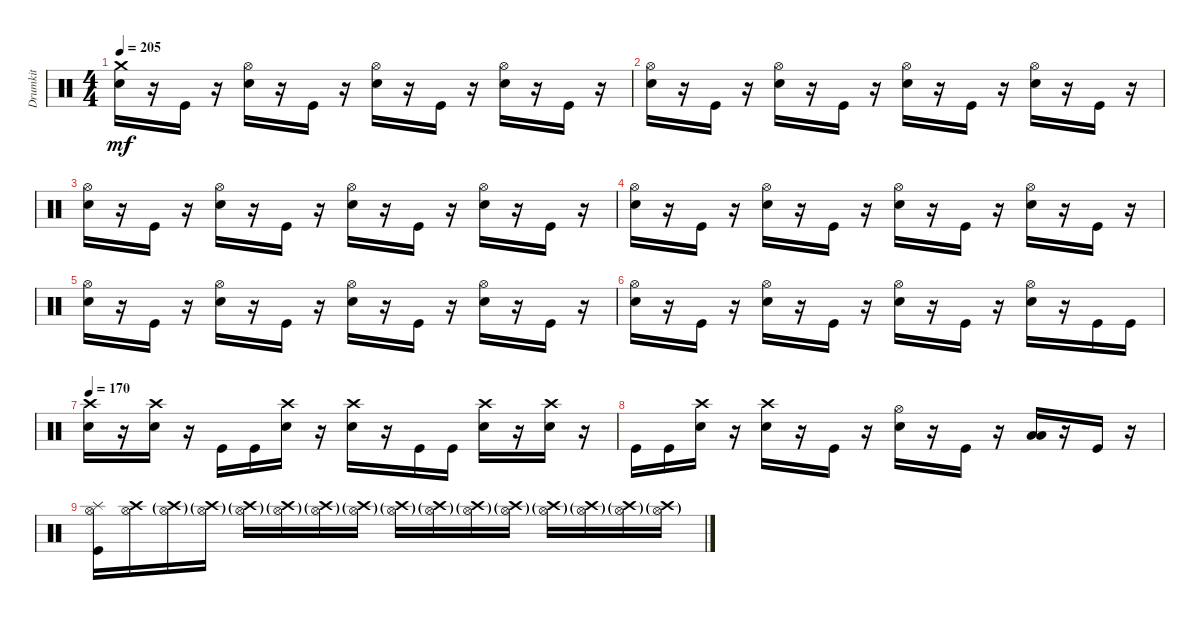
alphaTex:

\track ("Drumkit" "Drumkit") {instrument percussion}
\staff {score}
\articulation defaults
\ts (4 4)
\tempo 205
\clef neutral
\ks c
("Snare (hit) 2" "Crash medium (hit)").16{dy mf} r.16 "Kick (hit)".16 r.16 ("Snare (hit) 2" "Hi-Hat (open)").16 r.16 "Kick (hit)".16 r.16 ("Snare (hit) 2" "Hi-Hat (open)").16 r.16 "Kick (hit)".16 r.16 ("Snare (hit) 2" "Hi-Hat (open)").16 r.16 "Kick (hit)".16 r.16 |
("Snare (hit) 2" "Hi-Hat (open)").16 r.16 "Kick (hit)".16 r.16 ("Snare (hit) 2" "Hi-Hat (open)").16 r.16 "Kick (hit)".16 r.16 ("Snare (hit) 2" "Hi-Hat (open)").16 r.16 "Kick (hit)".16 r.16 ("Snare (hit) 2" "Hi-Hat (open)").16 r.16 "Kick (hit)".16 r.16 |
("Snare (hit) 2" "Hi-Hat (open)").16 r.16 "Kick (hit)".16 r.16 ("Snare (hit) 2" "Hi-Hat (open)").16 r.16 "Kick (hit)".16 r.16 ("Snare (hit) 2" "Hi-Hat (open)").16 r.16 "Kick (hit)".16 r.16 ("Snare (hit) 2" "Hi-Hat (open)").16 r.16 "Kick (hit)".16 r.16 |
("Snare (hit) 2" "Hi-Hat (open)").16 r.16 "Kick (hit)".16 r.16 ("Snare (hit) 2" "Hi-Hat (open)").16 r.16 "Kick (hit)".16 r.16 ("Snare (hit) 2" "Hi-Hat (open)").16 r.16 "Kick (hit)".16 r.16 ("Snare (hit) 2" "Hi-Hat (open)").16 r.16 "Kick (hit)".16 r.16 |
("Snare (hit) 2" "Hi-Hat (open)").16 r.16 "Kick (hit)".16 r.16 ("Snare (hit) 2" "Hi-Hat (open)").16 r.16 "Kick (hit)".16 r.16 ("Snare (hit) 2" "Hi-Hat (open)").16 r.16 "Kick (hit)".16 r.16 ("Snare (hit) 2" "Hi-Hat (open)").16 r.16 "Kick (hit)".16 r.16 |
("Snare (hit) 2" "Hi-Hat (open)").16 r.16 "Kick (hit)".16 r.16 ("Snare (hit) 2" "Hi-Hat (open)").16 r.16 "Kick (hit)".16 r.16 ("Snare (hit) 2" "Hi-Hat (open)").16 r.16 "Kick (hit)".16 r.16 ("Snare (hit) 2" "Hi-Hat (open)").16 r.16 "Kick (hit)".16 "Kick (hit)".16 |
\tempo 170
("Snare (hit) 2" "Crash high (hit)").16 r.16 ("Snare (hit) 2" "Crash high (hit)").16 r.16 "Kick (hit)".16 "Kick (hit)".16 ("Snare (hit) 2" "Crash high (hit)").16 r.16 ("Snare (hit) 2" "Crash high (hit)").16 r.16 "Kick (hit)".16 "Kick (hit)".16 ("Snare (hit) 2" "Crash high (hit)").16 r.16 ("Snare (hit) 2" "Crash high (hit)").16 r.16 |
"Kick (hit)".16 "Kick (hit)".16 ("Snare (hit) 2" "Crash high (hit)").16 r.16 ("Snare (hit) 2" "Crash high (hit)").16 r.16 "Kick (hit)".16 r.16 ("Snare (hit) 2" "Hi-Hat (open)").16 r.16 "Kick (hit)".16 r.16 ("Low Floor Tom (hit)" "Low Tom (hit)").16 r.16 "Kick (hit)".16 r.16 |
("Kick (hit)" "Splash (hit)" "Hi-Hat (open)").16 ("Hi-Hat (open)" "Crash high (hit)").16 ("Hi-Hat (open)"{g} "Crash high (hit)"{g}).16 ("Hi-Hat (open)"{g} "Crash high (hit)"{g}).16 ("Crash high (hit)"{g} "Hi-Hat (open)"{g}).16 ("Hi-Hat (open)"{g} "Crash high (hit)"{g}).16 ("Hi-Hat (open)"{g} "Crash high (hit)"{g}).16 ("Hi-Hat (open)"{g} "Crash high (hit)"{g}).16 ("Crash high (hit)"{g} "Hi-Hat (open)"{g}).16 ("Hi-Hat (open)"{g} "Crash high (hit)"{g}).16 ("Hi-Hat (open)"{g} "Crash high (hit)"{g}).16 ("Hi-Hat (open)"{g} "Crash high (hit)"{g}).16 ("Crash high (hit)"{g} "Hi-Hat (open)"{g}).16 ("Hi-Hat (open)"{g} "Crash high (hit)"{g}).16 ("Hi-Hat (open)"{g} "Crash high (hit)"{g}).16 ("Hi-Hat (open)"{g} "Crash high (hit)"{g}).16
